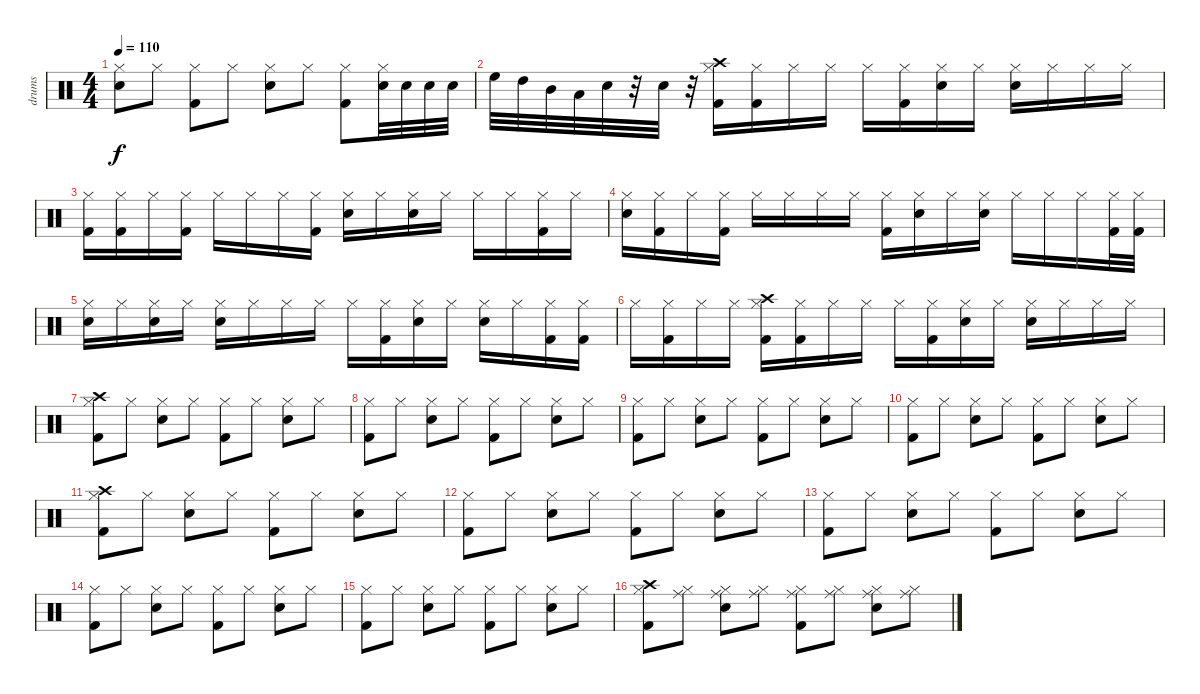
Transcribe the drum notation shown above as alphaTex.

\track ("drums" "drums") {instrument percussion}
\staff {score}
\articulation defaults
\ts (4 4)
\tempo 110
\clef neutral
\ks c
("Hi-Hat (closed)" "Electric Snare (hit)").8{dy f} "Hi-Hat (closed)".8 ("Hi-Hat (closed)" "Kick (hit) 2").8 "Hi-Hat (closed)".8 ("Hi-Hat (closed)" "Electric Snare (hit)").8 "Hi-Hat (closed)".8 ("Hi-Hat (closed)" "Kick (hit) 2").8 ("Hi-Hat (closed)" "Electric Snare (hit)").32 "Electric Snare (hit)".32 "Electric Snare (hit)".32 "Electric Snare (hit)".32 |
"High Floor Tom (hit)".32 "High Tom (hit)".32 "Mid Tom (hit)".32 "Low Tom (hit)".32 "Snare (hit) 2".32 r.32 "Snare (hit) 2".32 r.32 ("Hi-Hat (closed)" "Crash high (hit)" "Kick (hit) 2").16 ("Hi-Hat (closed)" "Kick (hit) 2").16 "Hi-Hat (closed)".16 "Hi-Hat (closed)".16 "Hi-Hat (closed)".16 ("Hi-Hat (closed)" "Kick (hit) 2").16 ("Hi-Hat (closed)" "Electric Snare (hit)").16 "Hi-Hat (closed)".16 ("Hi-Hat (closed)" "Electric Snare (hit)").16 "Hi-Hat (closed)".16 "Hi-Hat (closed)".16 "Hi-Hat (closed)".16 |
("Hi-Hat (closed)" "Kick (hit) 2").16 ("Hi-Hat (closed)" "Kick (hit) 2").16 "Hi-Hat (closed)".16 ("Hi-Hat (closed)" "Kick (hit) 2").16 "Hi-Hat (closed)".16 "Hi-Hat (closed)".16 "Hi-Hat (closed)".16 ("Hi-Hat (closed)" "Kick (hit) 2").16 ("Hi-Hat (closed)" "Electric Snare (hit)").16 "Hi-Hat (closed)".16 ("Hi-Hat (closed)" "Electric Snare (hit)").16 "Hi-Hat (closed)".16 "Hi-Hat (closed)".16 "Hi-Hat (closed)".16 ("Hi-Hat (closed)" "Kick (hit) 2").16 "Hi-Hat (closed)".16 |
("Hi-Hat (closed)" "Electric Snare (hit)").16 ("Hi-Hat (closed)" "Kick (hit) 2").16 "Hi-Hat (closed)".16 ("Hi-Hat (closed)" "Kick (hit) 2").16 "Hi-Hat (closed)".16 "Hi-Hat (closed)".16 "Hi-Hat (closed)".16 "Hi-Hat (closed)".16 ("Hi-Hat (closed)" "Kick (hit) 2").16 ("Hi-Hat (closed)" "Electric Snare (hit)").16 "Hi-Hat (closed)".16 ("Hi-Hat (closed)" "Electric Snare (hit)").16 "Hi-Hat (closed)".16 "Hi-Hat (closed)".16 "Hi-Hat (closed)".16 ("Hi-Hat (closed)" "Kick (hit) 2").32 ("Hi-Hat (closed)" "Kick (hit) 2").32 |
("Hi-Hat (closed)" "Electric Snare (hit)").16 "Hi-Hat (closed)".16 ("Hi-Hat (closed)" "Electric Snare (hit)").16 "Hi-Hat (closed)".16 ("Hi-Hat (closed)" "Electric Snare (hit)").16 "Hi-Hat (closed)".16 "Hi-Hat (closed)".16 "Hi-Hat (closed)".16 "Hi-Hat (closed)".16 ("Hi-Hat (closed)" "Kick (hit) 2").16 ("Hi-Hat (closed)" "Electric Snare (hit)").16 "Hi-Hat (closed)".16 ("Hi-Hat (closed)" "Electric Snare (hit)").16 "Hi-Hat (closed)".16 ("Hi-Hat (closed)" "Kick (hit) 2").16 ("Hi-Hat (closed)" "Kick (hit) 2").16 |
"Hi-Hat (closed)".16 ("Hi-Hat (closed)" "Kick (hit) 2").16 "Hi-Hat (closed)".16 "Hi-Hat (closed)".16 ("Hi-Hat (closed)" "Crash high (hit)" "Kick (hit) 2").16 ("Hi-Hat (closed)" "Kick (hit) 2").16 "Hi-Hat (closed)".16 "Hi-Hat (closed)".16 "Hi-Hat (closed)".16 ("Hi-Hat (closed)" "Kick (hit) 2").16 ("Hi-Hat (closed)" "Electric Snare (hit)").16 "Hi-Hat (closed)".16 ("Hi-Hat (closed)" "Electric Snare (hit)").16 "Hi-Hat (closed)".16 "Hi-Hat (closed)".16 "Hi-Hat (closed)".16 |
("Hi-Hat (closed)" "Crash high (hit)" "Kick (hit) 2").8 "Hi-Hat (closed)".8 ("Hi-Hat (closed)" "Electric Snare (hit)").8 "Hi-Hat (closed)".8 ("Hi-Hat (closed)" "Kick (hit) 2").8 "Hi-Hat (closed)".8 ("Hi-Hat (closed)" "Electric Snare (hit)").8 "Hi-Hat (closed)".8 |
("Hi-Hat (closed)" "Kick (hit) 2").8 "Hi-Hat (closed)".8 ("Hi-Hat (closed)" "Electric Snare (hit)").8 "Hi-Hat (closed)".8 ("Hi-Hat (closed)" "Kick (hit) 2").8 "Hi-Hat (closed)".8 ("Hi-Hat (closed)" "Electric Snare (hit)").8 "Hi-Hat (closed)".8 |
("Hi-Hat (closed)" "Kick (hit) 2").8 "Hi-Hat (closed)".8 ("Hi-Hat (closed)" "Electric Snare (hit)").8 "Hi-Hat (closed)".8 ("Hi-Hat (closed)" "Kick (hit) 2").8 "Hi-Hat (closed)".8 ("Hi-Hat (closed)" "Electric Snare (hit)").8 "Hi-Hat (closed)".8 |
("Hi-Hat (closed)" "Kick (hit) 2").8 "Hi-Hat (closed)".8 ("Hi-Hat (closed)" "Electric Snare (hit)").8 "Hi-Hat (closed)".8 ("Hi-Hat (closed)" "Kick (hit) 2").8 "Hi-Hat (closed)".8 ("Hi-Hat (closed)" "Electric Snare (hit)").8 "Hi-Hat (closed)".8 |
("Hi-Hat (closed)" "Crash high (hit)" "Kick (hit) 2").8 "Hi-Hat (closed)".8 ("Hi-Hat (closed)" "Electric Snare (hit)").8 "Hi-Hat (closed)".8 ("Hi-Hat (closed)" "Kick (hit) 2").8 "Hi-Hat (closed)".8 ("Hi-Hat (closed)" "Electric Snare (hit)").8 "Hi-Hat (closed)".8 |
("Hi-Hat (closed)" "Kick (hit) 2").8 "Hi-Hat (closed)".8 ("Hi-Hat (closed)" "Electric Snare (hit)").8 "Hi-Hat (closed)".8 ("Hi-Hat (closed)" "Kick (hit) 2").8 "Hi-Hat (closed)".8 ("Hi-Hat (closed)" "Electric Snare (hit)").8 "Hi-Hat (closed)".8 |
("Hi-Hat (closed)" "Kick (hit) 2").8 "Hi-Hat (closed)".8 ("Hi-Hat (closed)" "Electric Snare (hit)").8 "Hi-Hat (closed)".8 ("Hi-Hat (closed)" "Kick (hit) 2").8 "Hi-Hat (closed)".8 ("Hi-Hat (closed)" "Electric Snare (hit)").8 "Hi-Hat (closed)".8 |
("Hi-Hat (closed)" "Kick (hit) 2").8 "Hi-Hat (closed)".8 ("Hi-Hat (closed)" "Electric Snare (hit)").8 "Hi-Hat (closed)".8 ("Hi-Hat (closed)" "Kick (hit) 2").8 "Hi-Hat (closed)".8 ("Hi-Hat (closed)" "Electric Snare (hit)").8 "Hi-Hat (closed)".8 |
("Hi-Hat (closed)" "Kick (hit) 2").8 "Hi-Hat (closed)".8 ("Hi-Hat (closed)" "Electric Snare (hit)").8 "Hi-Hat (closed)".8 ("Hi-Hat (closed)" "Kick (hit) 2").8 "Hi-Hat (closed)".8 ("Hi-Hat (closed)" "Electric Snare (hit)").8 "Hi-Hat (closed)".8 |
("Hi-Hat (closed)" "Crash high (hit)" "Kick (hit) 2").8 ("Hi-Hat (closed)" "Ride (middle)").8 ("Hi-Hat (closed)" "Ride (middle)" "Electric Snare (hit)").8 ("Hi-Hat (closed)" "Ride (middle)").8 ("Hi-Hat (closed)" "Ride (middle)" "Kick (hit) 2").8 ("Hi-Hat (closed)" "Ride (middle)").8 ("Hi-Hat (closed)" "Ride (middle)" "Electric Snare (hit)").8 ("Hi-Hat (closed)" "Ride (middle)").8
